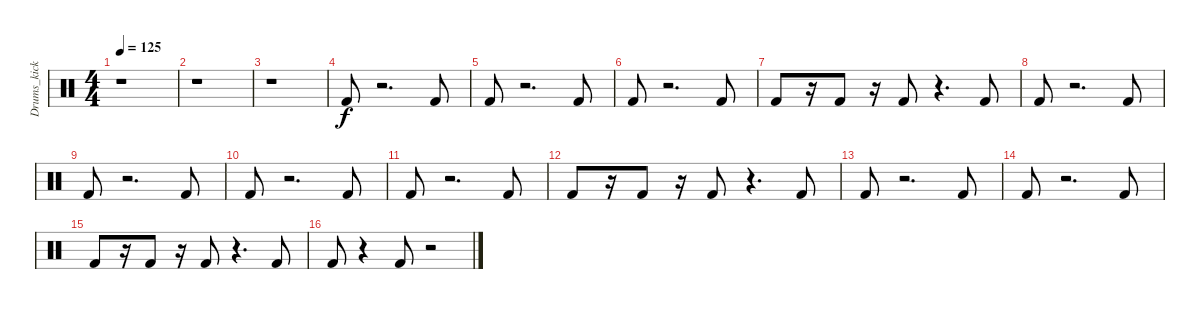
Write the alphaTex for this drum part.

\track ("Drums_kick" "Drums_kick") {instrument percussion}
\staff {score}
\articulation defaults
\ts (4 4)
\tempo 125
\clef neutral
\ks c
r.1{dy f} |
r.1 |
r.1 |
"Kick (hit) 2".8 r.2{d} "Kick (hit) 2".8 |
"Kick (hit) 2".8 r.2{d} "Kick (hit) 2".8 |
"Kick (hit) 2".8 r.2{d} "Kick (hit) 2".8 |
"Kick (hit) 2".8 r.16 "Kick (hit) 2".8 r.16 "Kick (hit) 2".8 r.4{d} "Kick (hit) 2".8 |
"Kick (hit) 2".8 r.2{d} "Kick (hit) 2".8 |
"Kick (hit) 2".8 r.2{d} "Kick (hit) 2".8 |
"Kick (hit) 2".8 r.2{d} "Kick (hit) 2".8 |
"Kick (hit) 2".8 r.2{d} "Kick (hit) 2".8 |
"Kick (hit) 2".8 r.16 "Kick (hit) 2".8 r.16 "Kick (hit) 2".8 r.4{d} "Kick (hit) 2".8 |
"Kick (hit) 2".8 r.2{d} "Kick (hit) 2".8 |
"Kick (hit) 2".8 r.2{d} "Kick (hit) 2".8 |
"Kick (hit) 2".8 r.16 "Kick (hit) 2".8 r.16 "Kick (hit) 2".8 r.4{d} "Kick (hit) 2".8 |
"Kick (hit) 2".8 r.4 "Kick (hit) 2".8 r.2
